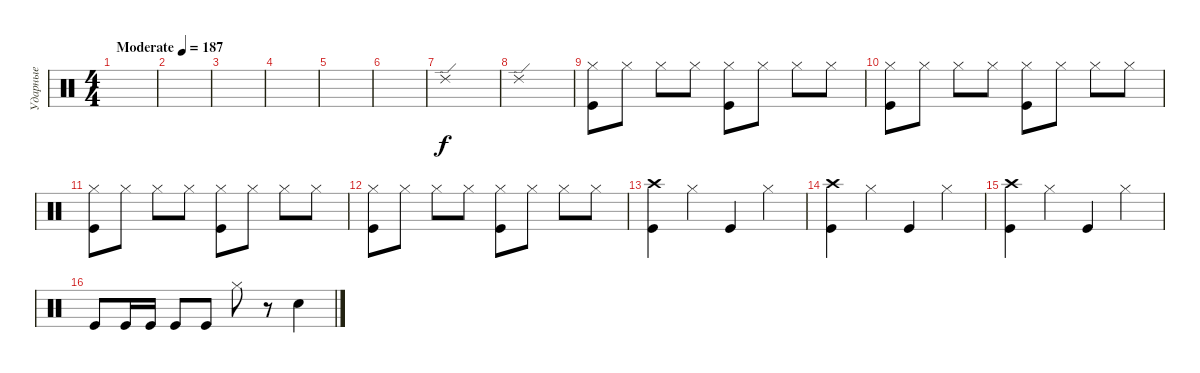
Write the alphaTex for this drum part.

\track ("Ударные" "Ударные") {instrument percussion}
\staff {score}
\articulation defaults
\ts (4 4)
\tempo (187 "Moderate")
\clef neutral
\ks c
|
|
|
|
|
|
"Ride (edge) 2".1 |
"Ride (edge) 2".1 |
("Hi-Hat (closed)" "Kick (hit)").8 "Hi-Hat (closed)".8 "Hi-Hat (closed)".8 "Hi-Hat (closed)".8 ("Hi-Hat (closed)" "Kick (hit)").8 "Hi-Hat (closed)".8 "Hi-Hat (closed)".8 "Hi-Hat (closed)".8 |
("Hi-Hat (closed)" "Kick (hit)").8 "Hi-Hat (closed)".8 "Hi-Hat (closed)".8 "Hi-Hat (closed)".8 ("Hi-Hat (closed)" "Kick (hit)").8 "Hi-Hat (closed)".8 "Hi-Hat (closed)".8 "Hi-Hat (closed)".8 |
("Hi-Hat (closed)" "Kick (hit)").8 "Hi-Hat (closed)".8 "Hi-Hat (closed)".8 "Hi-Hat (closed)".8 ("Hi-Hat (closed)" "Kick (hit)").8 "Hi-Hat (closed)".8 "Hi-Hat (closed)".8 "Hi-Hat (closed)".8 |
("Hi-Hat (closed)" "Kick (hit)").8 "Hi-Hat (closed)".8 "Hi-Hat (closed)".8 "Hi-Hat (closed)".8 ("Hi-Hat (closed)" "Kick (hit)").8 "Hi-Hat (closed)".8 "Hi-Hat (closed)".8 "Hi-Hat (closed)".8 |
("Crash high (hit)" "Kick (hit)").4 "Hi-Hat (closed)".4 "Kick (hit)".4 "Hi-Hat (closed)".4 |
("Crash high (hit)" "Kick (hit)").4 "Hi-Hat (closed)".4 "Kick (hit)".4 "Hi-Hat (closed)".4 |
("Crash high (hit)" "Kick (hit)").4 "Hi-Hat (closed)".4 "Kick (hit)".4 "Hi-Hat (closed)".4 |
"Kick (hit)".8 "Kick (hit)".16 "Kick (hit)".16 "Kick (hit)".8 "Kick (hit)".8 "Hi-Hat (closed)".8 r.8 "Electric Snare (hit)".4
